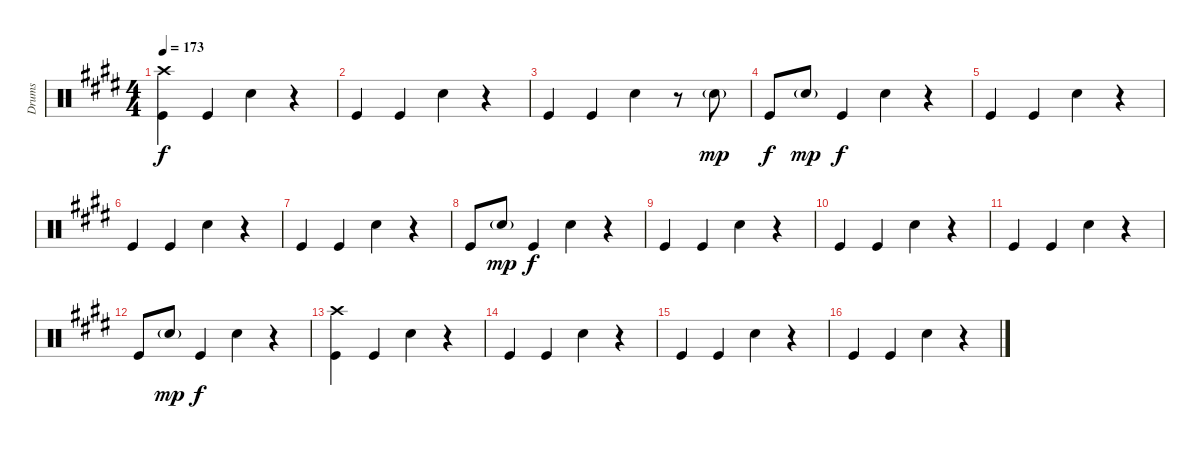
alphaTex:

\track ("Drums" "Drums") {instrument percussion}
\staff {score}
\articulation defaults
\ts (4 4)
\tempo 173
\clef neutral
\ks e
("Crash high (hit)" "Kick (hit)").4{dy f} "Kick (hit)".4 "Snare (hit) 2".4 r.4 |
"Kick (hit)".4 "Kick (hit)".4 "Snare (hit) 2".4 r.4 |
"Kick (hit)".4 "Kick (hit)".4 "Snare (hit) 2".4 r.8 "Snare (hit) 2"{g}.8{dy mp} |
"Kick (hit)".8{dy f} "Snare (hit) 2"{g}.8{dy mp} "Kick (hit)".4{dy f} "Snare (hit) 2".4 r.4 |
"Kick (hit)".4 "Kick (hit)".4 "Snare (hit) 2".4 r.4 |
"Kick (hit)".4 "Kick (hit)".4 "Snare (hit) 2".4 r.4 |
"Kick (hit)".4 "Kick (hit)".4 "Snare (hit) 2".4 r.4 |
"Kick (hit)".8 "Snare (hit) 2"{g}.8{dy mp} "Kick (hit)".4{dy f} "Snare (hit) 2".4 r.4 |
"Kick (hit)".4 "Kick (hit)".4 "Snare (hit) 2".4 r.4 |
"Kick (hit)".4 "Kick (hit)".4 "Snare (hit) 2".4 r.4 |
"Kick (hit)".4 "Kick (hit)".4 "Snare (hit) 2".4 r.4 |
"Kick (hit)".8 "Snare (hit) 2"{g}.8{dy mp} "Kick (hit)".4{dy f} "Snare (hit) 2".4 r.4 |
("Crash high (hit)" "Kick (hit)").4 "Kick (hit)".4 "Snare (hit) 2".4 r.4 |
"Kick (hit)".4 "Kick (hit)".4 "Snare (hit) 2".4 r.4 |
"Kick (hit)".4 "Kick (hit)".4 "Snare (hit) 2".4 r.4 |
"Kick (hit)".4 "Kick (hit)".4 "Snare (hit) 2".4 r.4
